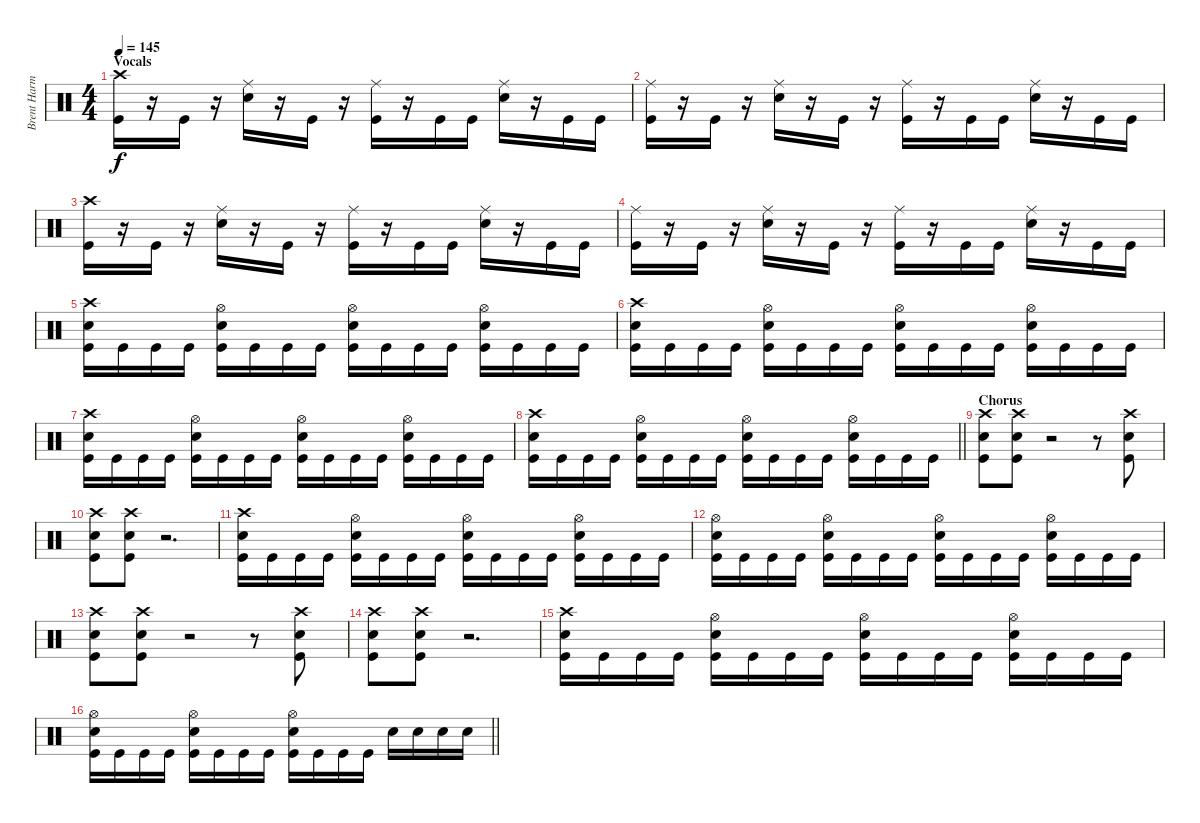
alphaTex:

\track ("Brent Harman" "Brent Harm") {instrument percussion}
\staff {score}
\articulation defaults
\ts (4 4)
\section ("" "Vocals")
\tempo 145
\clef neutral
\ks c
("Crash high (hit)" "Kick (hit)").16{dy f} r.16 "Kick (hit)".16 r.16 ("Ride (middle)" "Snare (hit) 2").16 r.16 "Kick (hit)".16 r.16 ("Ride (middle)" "Kick (hit)").16 r.16 "Kick (hit)".16 "Kick (hit)".16 ("Ride (middle)" "Snare (hit) 2").16 r.16 "Kick (hit)".16 "Kick (hit)".16 |
("Ride (middle)" "Kick (hit)").16 r.16 "Kick (hit)".16 r.16 ("Ride (middle)" "Snare (hit) 2").16 r.16 "Kick (hit)".16 r.16 ("Ride (middle)" "Kick (hit)").16 r.16 "Kick (hit)".16 "Kick (hit)".16 ("Ride (middle)" "Snare (hit) 2").16 r.16 "Kick (hit)".16 "Kick (hit)".16 |
("Crash high (hit)" "Kick (hit)").16 r.16 "Kick (hit)".16 r.16 ("Ride (middle)" "Snare (hit) 2").16 r.16 "Kick (hit)".16 r.16 ("Ride (middle)" "Kick (hit)").16 r.16 "Kick (hit)".16 "Kick (hit)".16 ("Ride (middle)" "Snare (hit) 2").16 r.16 "Kick (hit)".16 "Kick (hit)".16 |
("Ride (middle)" "Kick (hit)").16 r.16 "Kick (hit)".16 r.16 ("Ride (middle)" "Snare (hit) 2").16 r.16 "Kick (hit)".16 r.16 ("Ride (middle)" "Kick (hit)").16 r.16 "Kick (hit)".16 "Kick (hit)".16 ("Ride (middle)" "Snare (hit) 2").16 r.16 "Kick (hit)".16 "Kick (hit)".16 |
("Crash high (hit)" "Snare (hit) 2" "Kick (hit)").16 "Kick (hit)".16 "Kick (hit)".16 "Kick (hit)".16 ("Hi-Hat (open)" "Snare (hit) 2" "Kick (hit)").16 "Kick (hit)".16 "Kick (hit)".16 "Kick (hit)".16 ("Hi-Hat (open)" "Snare (hit) 2" "Kick (hit)").16 "Kick (hit)".16 "Kick (hit)".16 "Kick (hit)".16 ("Hi-Hat (open)" "Snare (hit) 2" "Kick (hit)").16 "Kick (hit)".16 "Kick (hit)".16 "Kick (hit)".16 |
("Crash high (hit)" "Snare (hit) 2" "Kick (hit)").16 "Kick (hit)".16 "Kick (hit)".16 "Kick (hit)".16 ("Hi-Hat (open)" "Snare (hit) 2" "Kick (hit)").16 "Kick (hit)".16 "Kick (hit)".16 "Kick (hit)".16 ("Hi-Hat (open)" "Snare (hit) 2" "Kick (hit)").16 "Kick (hit)".16 "Kick (hit)".16 "Kick (hit)".16 ("Hi-Hat (open)" "Snare (hit) 2" "Kick (hit)").16 "Kick (hit)".16 "Kick (hit)".16 "Kick (hit)".16 |
("Crash high (hit)" "Snare (hit) 2" "Kick (hit)").16 "Kick (hit)".16 "Kick (hit)".16 "Kick (hit)".16 ("Hi-Hat (open)" "Snare (hit) 2" "Kick (hit)").16 "Kick (hit)".16 "Kick (hit)".16 "Kick (hit)".16 ("Hi-Hat (open)" "Snare (hit) 2" "Kick (hit)").16 "Kick (hit)".16 "Kick (hit)".16 "Kick (hit)".16 ("Hi-Hat (open)" "Snare (hit) 2" "Kick (hit)").16 "Kick (hit)".16 "Kick (hit)".16 "Kick (hit)".16 |
\barLineRight lightlight
("Crash high (hit)" "Snare (hit) 2" "Kick (hit)").16 "Kick (hit)".16 "Kick (hit)".16 "Kick (hit)".16 ("Hi-Hat (open)" "Snare (hit) 2" "Kick (hit)").16 "Kick (hit)".16 "Kick (hit)".16 "Kick (hit)".16 ("Hi-Hat (open)" "Snare (hit) 2" "Kick (hit)").16 "Kick (hit)".16 "Kick (hit)".16 "Kick (hit)".16 ("Hi-Hat (open)" "Snare (hit) 2" "Kick (hit)").16 "Kick (hit)".16 "Kick (hit)".16 "Kick (hit)".16 |
\section ("" "Chorus")
("Crash high (hit)" "Snare (hit) 2" "Kick (hit)").8 ("Crash high (hit)" "Snare (hit) 2" "Kick (hit)").8 r.2 r.8 ("Crash high (hit)" "Snare (hit) 2" "Kick (hit)").8 |
("Crash high (hit)" "Snare (hit) 2" "Kick (hit)").8 ("Crash high (hit)" "Snare (hit) 2" "Kick (hit)").8 r.2{d} |
("Crash high (hit)" "Snare (hit) 2" "Kick (hit)").16 "Kick (hit)".16 "Kick (hit)".16 "Kick (hit)".16 ("Hi-Hat (open)" "Snare (hit) 2" "Kick (hit)").16 "Kick (hit)".16 "Kick (hit)".16 "Kick (hit)".16 ("Hi-Hat (open)" "Snare (hit) 2" "Kick (hit)").16 "Kick (hit)".16 "Kick (hit)".16 "Kick (hit)".16 ("Hi-Hat (open)" "Snare (hit) 2" "Kick (hit)").16 "Kick (hit)".16 "Kick (hit)".16 "Kick (hit)".16 |
("Hi-Hat (open)" "Snare (hit) 2" "Kick (hit)").16 "Kick (hit)".16 "Kick (hit)".16 "Kick (hit)".16 ("Hi-Hat (open)" "Snare (hit) 2" "Kick (hit)").16 "Kick (hit)".16 "Kick (hit)".16 "Kick (hit)".16 ("Hi-Hat (open)" "Snare (hit) 2" "Kick (hit)").16 "Kick (hit)".16 "Kick (hit)".16 "Kick (hit)".16 ("Hi-Hat (open)" "Snare (hit) 2" "Kick (hit)").16 "Kick (hit)".16 "Kick (hit)".16 "Kick (hit)".16 |
("Crash high (hit)" "Snare (hit) 2" "Kick (hit)").8 ("Crash high (hit)" "Snare (hit) 2" "Kick (hit)").8 r.2 r.8 ("Crash high (hit)" "Snare (hit) 2" "Kick (hit)").8 |
("Crash high (hit)" "Snare (hit) 2" "Kick (hit)").8 ("Crash high (hit)" "Snare (hit) 2" "Kick (hit)").8 r.2{d} |
("Crash high (hit)" "Snare (hit) 2" "Kick (hit)").16 "Kick (hit)".16 "Kick (hit)".16 "Kick (hit)".16 ("Hi-Hat (open)" "Snare (hit) 2" "Kick (hit)").16 "Kick (hit)".16 "Kick (hit)".16 "Kick (hit)".16 ("Hi-Hat (open)" "Snare (hit) 2" "Kick (hit)").16 "Kick (hit)".16 "Kick (hit)".16 "Kick (hit)".16 ("Hi-Hat (open)" "Snare (hit) 2" "Kick (hit)").16 "Kick (hit)".16 "Kick (hit)".16 "Kick (hit)".16 |
\barLineRight lightlight
("Hi-Hat (open)" "Snare (hit) 2" "Kick (hit)").16 "Kick (hit)".16 "Kick (hit)".16 "Kick (hit)".16 ("Hi-Hat (open)" "Snare (hit) 2" "Kick (hit)").16 "Kick (hit)".16 "Kick (hit)".16 "Kick (hit)".16 ("Hi-Hat (open)" "Snare (hit) 2" "Kick (hit)").16 "Kick (hit)".16 "Kick (hit)".16 "Kick (hit)".16 "Snare (hit) 2".16 "Snare (hit) 2".16 "Snare (hit) 2".16 "Snare (hit) 2".16
